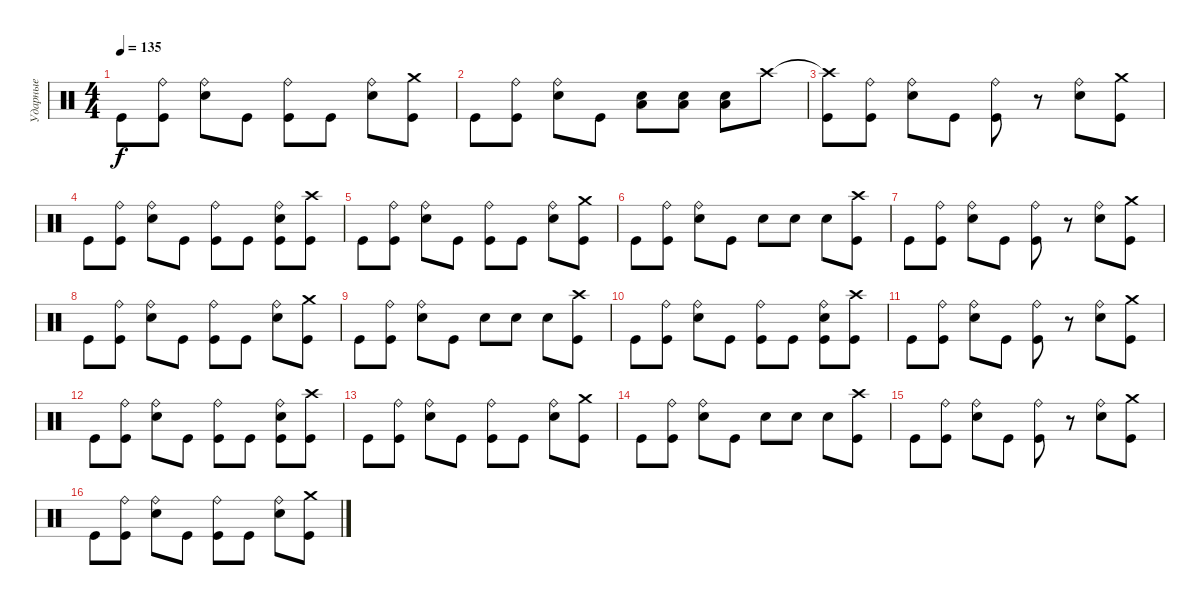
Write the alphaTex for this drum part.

\track ("Ударные" "Ударные") {instrument percussion}
\staff {score}
\articulation defaults
\ts (4 4)
\tempo 135
\clef neutral
\ks c "Kick (hit)".8{dy f}
("Ride (bell)" "Kick (hit)").8 ("Ride (bell)" "Electric Snare (hit)").8 "Kick (hit)".8 ("Ride (bell)" "Kick (hit)").8 "Kick (hit)".8 ("Ride (bell)" "Electric Snare (hit)").8 ("Crash medium (hit)" "Kick (hit)").8 |
"Kick (hit)".8 ("Ride (bell)" "Kick (hit)").8 ("Ride (bell)" "Electric Snare (hit)").8 "Kick (hit)".8 ("Electric Snare (hit)" "Low Tom (hit)").8 ("Electric Snare (hit)" "Low Tom (hit)").8 ("Electric Snare (hit)" "Low Tom (hit)").8 "Crash high (hit)".8 |
("Crash high (hit)"{t} "Kick (hit)").8 ("Ride (bell)" "Kick (hit)").8 ("Ride (bell)" "Electric Snare (hit)").8 "Kick (hit)".8 ("Ride (bell)" "Kick (hit)").8 r.8 ("Ride (bell)" "Electric Snare (hit)").8 ("Crash medium (hit)" "Kick (hit)").8 |
"Kick (hit)".8 ("Ride (bell)" "Kick (hit)").8 ("Ride (bell)" "Electric Snare (hit)").8 "Kick (hit)".8 ("Ride (bell)" "Kick (hit)").8 "Kick (hit)".8 ("Ride (bell)" "Electric Snare (hit)" "Kick (hit)").8 ("Crash high (hit)" "Kick (hit)").8 |
"Kick (hit)".8 ("Ride (bell)" "Kick (hit)").8 ("Ride (bell)" "Electric Snare (hit)").8 "Kick (hit)".8 ("Ride (bell)" "Kick (hit)").8 "Kick (hit)".8 ("Ride (bell)" "Electric Snare (hit)").8 ("Crash medium (hit)" "Kick (hit)").8 |
"Kick (hit)".8 ("Ride (bell)" "Kick (hit)").8 ("Ride (bell)" "Electric Snare (hit)").8 "Kick (hit)".8 "Electric Snare (hit)".8 "Electric Snare (hit)".8 "Electric Snare (hit)".8 ("Crash high (hit)" "Kick (hit)").8 |
"Kick (hit)".8 ("Ride (bell)" "Kick (hit)").8 ("Ride (bell)" "Electric Snare (hit)").8 "Kick (hit)".8 ("Ride (bell)" "Kick (hit)").8 r.8 ("Ride (bell)" "Electric Snare (hit)").8 ("Crash medium (hit)" "Kick (hit)").8 |
"Kick (hit)".8 ("Ride (bell)" "Kick (hit)").8 ("Ride (bell)" "Electric Snare (hit)").8 "Kick (hit)".8 ("Ride (bell)" "Kick (hit)").8 "Kick (hit)".8 ("Ride (bell)" "Electric Snare (hit)").8 ("Crash medium (hit)" "Kick (hit)").8 |
"Kick (hit)".8 ("Ride (bell)" "Kick (hit)").8 ("Ride (bell)" "Electric Snare (hit)").8 "Kick (hit)".8 "Electric Snare (hit)".8 "Electric Snare (hit)".8 "Electric Snare (hit)".8 ("Crash high (hit)" "Kick (hit)").8 |
"Kick (hit)".8 ("Ride (bell)" "Kick (hit)").8 ("Ride (bell)" "Electric Snare (hit)").8 "Kick (hit)".8 ("Ride (bell)" "Kick (hit)").8 "Kick (hit)".8 ("Ride (bell)" "Electric Snare (hit)" "Kick (hit)").8 ("Crash high (hit)" "Kick (hit)").8 |
"Kick (hit)".8 ("Ride (bell)" "Kick (hit)").8 ("Ride (bell)" "Electric Snare (hit)").8 "Kick (hit)".8 ("Ride (bell)" "Kick (hit)").8 r.8 ("Ride (bell)" "Electric Snare (hit)").8 ("Crash medium (hit)" "Kick (hit)").8 |
"Kick (hit)".8 ("Ride (bell)" "Kick (hit)").8 ("Ride (bell)" "Electric Snare (hit)").8 "Kick (hit)".8 ("Ride (bell)" "Kick (hit)").8 "Kick (hit)".8 ("Ride (bell)" "Electric Snare (hit)" "Kick (hit)").8 ("Crash high (hit)" "Kick (hit)").8 |
"Kick (hit)".8 ("Ride (bell)" "Kick (hit)").8 ("Ride (bell)" "Electric Snare (hit)").8 "Kick (hit)".8 ("Ride (bell)" "Kick (hit)").8 "Kick (hit)".8 ("Ride (bell)" "Electric Snare (hit)").8 ("Crash medium (hit)" "Kick (hit)").8 |
"Kick (hit)".8 ("Ride (bell)" "Kick (hit)").8 ("Ride (bell)" "Electric Snare (hit)").8 "Kick (hit)".8 "Electric Snare (hit)".8 "Electric Snare (hit)".8 "Electric Snare (hit)".8 ("Crash high (hit)" "Kick (hit)").8 |
"Kick (hit)".8 ("Ride (bell)" "Kick (hit)").8 ("Ride (bell)" "Electric Snare (hit)").8 "Kick (hit)".8 ("Ride (bell)" "Kick (hit)").8 r.8 ("Ride (bell)" "Electric Snare (hit)").8 ("Crash medium (hit)" "Kick (hit)").8 |
"Kick (hit)".8 ("Ride (bell)" "Kick (hit)").8 ("Ride (bell)" "Electric Snare (hit)").8 "Kick (hit)".8 ("Ride (bell)" "Kick (hit)").8 "Kick (hit)".8 ("Ride (bell)" "Electric Snare (hit)").8 ("Crash medium (hit)" "Kick (hit)").8
